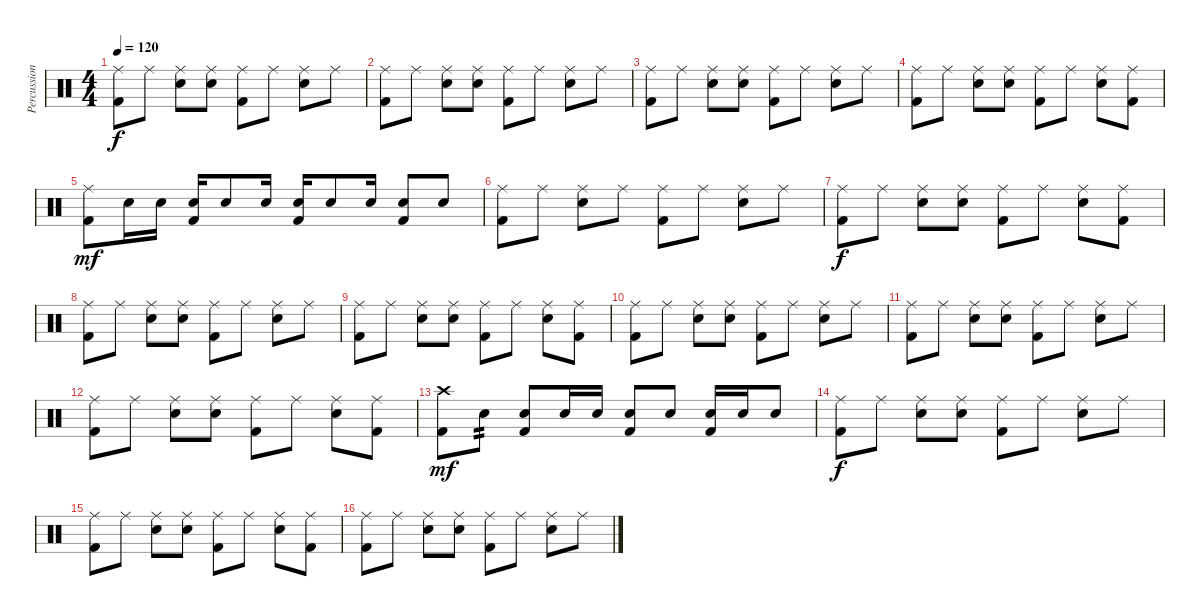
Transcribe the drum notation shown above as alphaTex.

\track ("Percussion" "Percussion") {instrument percussion}
\staff {score}
\articulation defaults
\ts (4 4)
\tempo 120
\clef neutral
\ks c
("Ride (middle)" "Kick (hit) 2").8{dy f} "Ride (middle)".8 ("Ride (middle)" "Snare (hit) 2").8 ("Ride (middle)" "Snare (hit) 2").8 ("Ride (middle)" "Kick (hit) 2").8 "Ride (middle)".8 ("Ride (middle)" "Snare (hit) 2").8 "Ride (middle)".8 |
("Ride (middle)" "Kick (hit) 2").8 "Ride (middle)".8 ("Ride (middle)" "Snare (hit) 2").8 ("Ride (middle)" "Snare (hit) 2").8 ("Ride (middle)" "Kick (hit) 2").8 "Ride (middle)".8 ("Ride (middle)" "Snare (hit) 2").8 "Ride (middle)".8 |
("Ride (middle)" "Kick (hit) 2").8 "Ride (middle)".8 ("Ride (middle)" "Snare (hit) 2").8 ("Ride (middle)" "Snare (hit) 2").8 ("Ride (middle)" "Kick (hit) 2").8 "Ride (middle)".8 ("Ride (middle)" "Snare (hit) 2").8 "Ride (middle)".8 |
("Ride (middle)" "Kick (hit) 2").8 "Ride (middle)".8 ("Ride (middle)" "Snare (hit) 2").8 ("Ride (middle)" "Snare (hit) 2").8 ("Ride (middle)" "Kick (hit) 2").8 "Ride (middle)".8 ("Ride (middle)" "Snare (hit) 2").8 ("Ride (middle)" "Kick (hit) 2").8 |
("Ride (middle)" "Kick (hit) 2").8{dy mf} "Snare (hit) 2".16 "Snare (hit) 2".16 ("Snare (hit) 2" "Kick (hit) 2").16 "Snare (hit) 2".8 "Snare (hit) 2".16 ("Snare (hit) 2" "Kick (hit) 2").16 "Snare (hit) 2".8 "Snare (hit) 2".16 ("Snare (hit) 2" "Kick (hit) 2").8 "Snare (hit) 2".8 |
("Ride (middle)" "Kick (hit) 2").8 "Ride (middle)".8 ("Ride (middle)" "Snare (hit) 2").8 "Ride (middle)".8 ("Ride (middle)" "Kick (hit) 2").8 "Ride (middle)".8 ("Ride (middle)" "Snare (hit) 2").8 "Ride (middle)".8 |
("Ride (middle)" "Kick (hit) 2").8{dy f} "Ride (middle)".8 ("Ride (middle)" "Snare (hit) 2").8 ("Ride (middle)" "Snare (hit) 2").8 ("Ride (middle)" "Kick (hit) 2").8 "Ride (middle)".8 ("Ride (middle)" "Snare (hit) 2").8 ("Ride (middle)" "Kick (hit) 2").8 |
("Ride (middle)" "Kick (hit) 2").8 "Ride (middle)".8 ("Ride (middle)" "Snare (hit) 2").8 ("Ride (middle)" "Snare (hit) 2").8 ("Ride (middle)" "Kick (hit) 2").8 "Ride (middle)".8 ("Ride (middle)" "Snare (hit) 2").8 "Ride (middle)".8 |
("Ride (middle)" "Kick (hit) 2").8 "Ride (middle)".8 ("Ride (middle)" "Snare (hit) 2").8 ("Ride (middle)" "Snare (hit) 2").8 ("Ride (middle)" "Kick (hit) 2").8 "Ride (middle)".8 ("Ride (middle)" "Snare (hit) 2").8 ("Ride (middle)" "Kick (hit) 2").8 |
("Ride (middle)" "Kick (hit) 2").8 "Ride (middle)".8 ("Ride (middle)" "Snare (hit) 2").8 ("Ride (middle)" "Snare (hit) 2").8 ("Ride (middle)" "Kick (hit) 2").8 "Ride (middle)".8 ("Ride (middle)" "Snare (hit) 2").8 "Ride (middle)".8 |
("Ride (middle)" "Kick (hit) 2").8 "Ride (middle)".8 ("Ride (middle)" "Snare (hit) 2").8 ("Ride (middle)" "Snare (hit) 2").8 ("Ride (middle)" "Kick (hit) 2").8 "Ride (middle)".8 ("Ride (middle)" "Snare (hit) 2").8 "Ride (middle)".8 |
("Ride (middle)" "Kick (hit) 2").8 "Ride (middle)".8 ("Ride (middle)" "Snare (hit) 2").8 ("Ride (middle)" "Snare (hit) 2").8 ("Ride (middle)" "Kick (hit) 2").8 "Ride (middle)".8 ("Ride (middle)" "Snare (hit) 2").8 ("Ride (middle)" "Kick (hit) 2").8 |
("Crash high (hit)" "Kick (hit) 2").8{dy mf} "Snare (hit) 2".8{tp 2} ("Snare (hit) 2" "Kick (hit) 2").8 "Snare (hit) 2".16 "Snare (hit) 2".16 ("Snare (hit) 2" "Kick (hit) 2").8 "Snare (hit) 2".8 ("Snare (hit) 2" "Kick (hit) 2").16 "Snare (hit) 2".16 "Snare (hit) 2".8 |
("Ride (middle)" "Kick (hit) 2").8{dy f} "Ride (middle)".8 ("Ride (middle)" "Snare (hit) 2").8 ("Ride (middle)" "Snare (hit) 2").8 ("Ride (middle)" "Kick (hit) 2").8 "Ride (middle)".8 ("Ride (middle)" "Snare (hit) 2").8 "Ride (middle)".8 |
("Ride (middle)" "Kick (hit) 2").8 "Ride (middle)".8 ("Ride (middle)" "Snare (hit) 2").8 ("Ride (middle)" "Snare (hit) 2").8 ("Ride (middle)" "Kick (hit) 2").8 "Ride (middle)".8 ("Ride (middle)" "Snare (hit) 2").8 ("Ride (middle)" "Kick (hit) 2").8 |
("Ride (middle)" "Kick (hit) 2").8 "Ride (middle)".8 ("Ride (middle)" "Snare (hit) 2").8 ("Ride (middle)" "Snare (hit) 2").8 ("Ride (middle)" "Kick (hit) 2").8 "Ride (middle)".8 ("Ride (middle)" "Snare (hit) 2").8 "Ride (middle)".8
